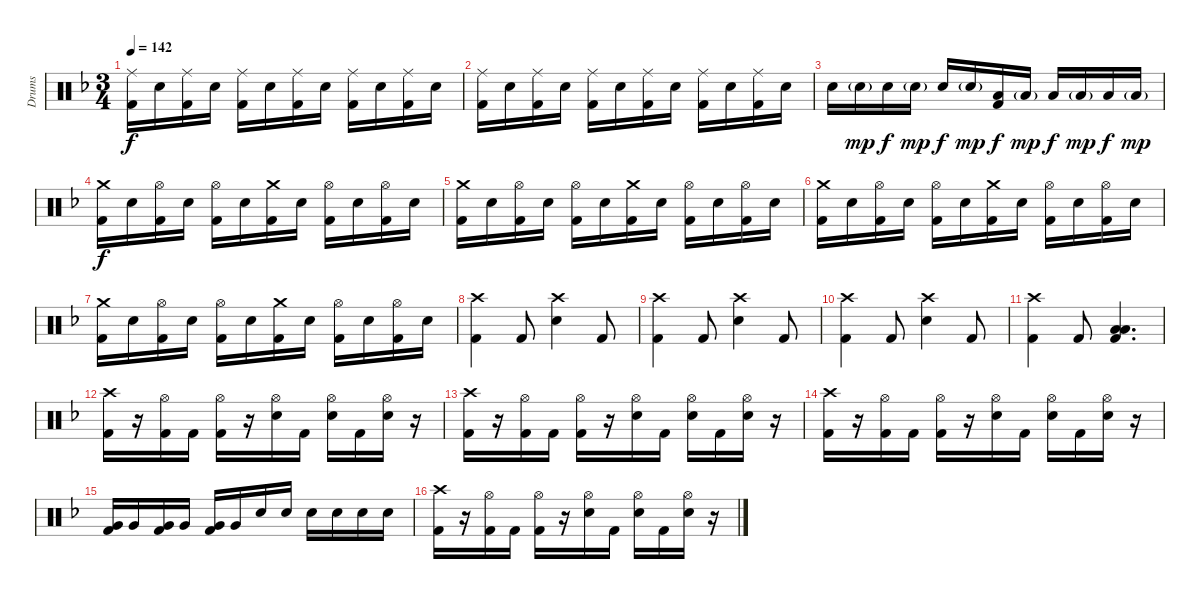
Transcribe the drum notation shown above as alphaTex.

\track ("Drums" "Drums") {instrument percussion}
\staff {score}
\articulation defaults
\ts (3 4)
\tempo 142
\clef neutral
\ks dminor
("Ride (middle)" "Kick (hit) 2").16{dy f} "Electric Snare (hit)".16 ("Ride (middle)" "Kick (hit) 2").16 "Electric Snare (hit)".16 ("Ride (middle)" "Kick (hit) 2").16 "Electric Snare (hit)".16 ("Ride (middle)" "Kick (hit) 2").16 "Electric Snare (hit)".16 ("Ride (middle)" "Kick (hit) 2").16 "Electric Snare (hit)".16 ("Ride (middle)" "Kick (hit) 2").16 "Electric Snare (hit)".16 |
("Ride (middle)" "Kick (hit) 2").16 "Electric Snare (hit)".16 ("Ride (middle)" "Kick (hit) 2").16 "Electric Snare (hit)".16 ("Ride (middle)" "Kick (hit) 2").16 "Electric Snare (hit)".16 ("Ride (middle)" "Kick (hit) 2").16 "Electric Snare (hit)".16 ("Ride (middle)" "Kick (hit) 2").16 "Electric Snare (hit)".16 ("Ride (middle)" "Kick (hit) 2").16 "Electric Snare (hit)".16 |
"Electric Snare (hit)".16 "Electric Snare (hit)"{g}.16{dy mp} "Electric Snare (hit)".16{dy f} "Electric Snare (hit)"{g}.16{dy mp} "Electric Snare (hit)".16{dy f} "Electric Snare (hit)"{g}.16{dy mp} ("Low Floor Tom (hit)" "Kick (hit) 2").16{dy f} "Low Floor Tom (hit)"{g}.16{dy mp} "Low Floor Tom (hit)".16{dy f} "Low Floor Tom (hit)"{g}.16{dy mp} "Low Floor Tom (hit)".16{dy f} "Low Floor Tom (hit)"{g}.16{dy mp} |
("Crash medium (hit)" "Kick (hit) 2").16{dy f} "Electric Snare (hit)".16 ("Hi-Hat (open)" "Kick (hit) 2").16 "Electric Snare (hit)".16 ("Hi-Hat (open)" "Kick (hit) 2").16 "Electric Snare (hit)".16 ("Crash medium (hit)" "Kick (hit) 2").16 "Electric Snare (hit)".16 ("Hi-Hat (open)" "Kick (hit) 2").16 "Electric Snare (hit)".16 ("Hi-Hat (open)" "Kick (hit) 2").16 "Electric Snare (hit)".16 |
("Crash medium (hit)" "Kick (hit) 2").16 "Electric Snare (hit)".16 ("Hi-Hat (open)" "Kick (hit) 2").16 "Electric Snare (hit)".16 ("Hi-Hat (open)" "Kick (hit) 2").16 "Electric Snare (hit)".16 ("Crash medium (hit)" "Kick (hit) 2").16 "Electric Snare (hit)".16 ("Hi-Hat (open)" "Kick (hit) 2").16 "Electric Snare (hit)".16 ("Hi-Hat (open)" "Kick (hit) 2").16 "Electric Snare (hit)".16 |
("Crash medium (hit)" "Kick (hit) 2").16 "Electric Snare (hit)".16 ("Hi-Hat (open)" "Kick (hit) 2").16 "Electric Snare (hit)".16 ("Hi-Hat (open)" "Kick (hit) 2").16 "Electric Snare (hit)".16 ("Crash medium (hit)" "Kick (hit) 2").16 "Electric Snare (hit)".16 ("Hi-Hat (open)" "Kick (hit) 2").16 "Electric Snare (hit)".16 ("Hi-Hat (open)" "Kick (hit) 2").16 "Electric Snare (hit)".16 |
("Crash medium (hit)" "Kick (hit) 2").16 "Electric Snare (hit)".16 ("Hi-Hat (open)" "Kick (hit) 2").16 "Electric Snare (hit)".16 ("Hi-Hat (open)" "Kick (hit) 2").16 "Electric Snare (hit)".16 ("Crash medium (hit)" "Kick (hit) 2").16 "Electric Snare (hit)".16 ("Hi-Hat (open)" "Kick (hit) 2").16 "Electric Snare (hit)".16 ("Hi-Hat (open)" "Kick (hit) 2").16 "Electric Snare (hit)".16 |
("Crash high (hit)" "Kick (hit) 2").4 "Kick (hit) 2".8 ("Crash high (hit)" "Electric Snare (hit)").4 "Kick (hit) 2".8 |
("Crash high (hit)" "Kick (hit) 2").4 "Kick (hit) 2".8 ("Crash high (hit)" "Electric Snare (hit)").4 "Kick (hit) 2".8 |
("Crash high (hit)" "Kick (hit) 2").4 "Kick (hit) 2".8 ("Crash high (hit)" "Electric Snare (hit)").4 "Kick (hit) 2".8 |
("Crash high (hit)" "Kick (hit) 2").4 "Kick (hit) 2".8 ("Low Tom (hit)" "Low Floor Tom (hit)" "Kick (hit) 2").4{d} |
("Crash high (hit)" "Kick (hit) 2").16 r.16 ("Hi-Hat (open)" "Kick (hit) 2").16 "Kick (hit) 2".16 ("Hi-Hat (open)" "Kick (hit) 2").16 r.16 ("Hi-Hat (open)" "Electric Snare (hit)").16 "Kick (hit) 2".16 ("Hi-Hat (open)" "Electric Snare (hit)").16 "Kick (hit) 2".16 ("Hi-Hat (open)" "Electric Snare (hit)").16 r.16 |
("Crash high (hit)" "Kick (hit) 2").16 r.16 ("Hi-Hat (open)" "Kick (hit) 2").16 "Kick (hit) 2".16 ("Hi-Hat (open)" "Kick (hit) 2").16 r.16 ("Hi-Hat (open)" "Electric Snare (hit)").16 "Kick (hit) 2".16 ("Hi-Hat (open)" "Electric Snare (hit)").16 "Kick (hit) 2".16 ("Hi-Hat (open)" "Electric Snare (hit)").16 r.16 |
("Crash high (hit)" "Kick (hit) 2").16 r.16 ("Hi-Hat (open)" "Kick (hit) 2").16 "Kick (hit) 2".16 ("Hi-Hat (open)" "Kick (hit) 2").16 r.16 ("Hi-Hat (open)" "Electric Snare (hit)").16 "Kick (hit) 2".16 ("Hi-Hat (open)" "Electric Snare (hit)").16 "Kick (hit) 2".16 ("Hi-Hat (open)" "Electric Snare (hit)").16 r.16 |
("Very Low Tom (hit)" "Kick (hit) 2").16 "Very Low Tom (hit)".16 ("Very Low Tom (hit)" "Kick (hit) 2").16 "Very Low Tom (hit)".16 ("Very Low Tom (hit)" "Kick (hit) 2").16 "Very Low Tom (hit)".16 "Electric Snare (hit)".16 "Electric Snare (hit)".16 "Electric Snare (hit)".16 "Electric Snare (hit)".16 "Electric Snare (hit)".16 "Electric Snare (hit)".16 |
("Crash high (hit)" "Kick (hit) 2").16 r.16 ("Hi-Hat (open)" "Kick (hit) 2").16 "Kick (hit) 2".16 ("Hi-Hat (open)" "Kick (hit) 2").16 r.16 ("Hi-Hat (open)" "Electric Snare (hit)").16 "Kick (hit) 2".16 ("Hi-Hat (open)" "Electric Snare (hit)").16 "Kick (hit) 2".16 ("Hi-Hat (open)" "Electric Snare (hit)").16 r.16
